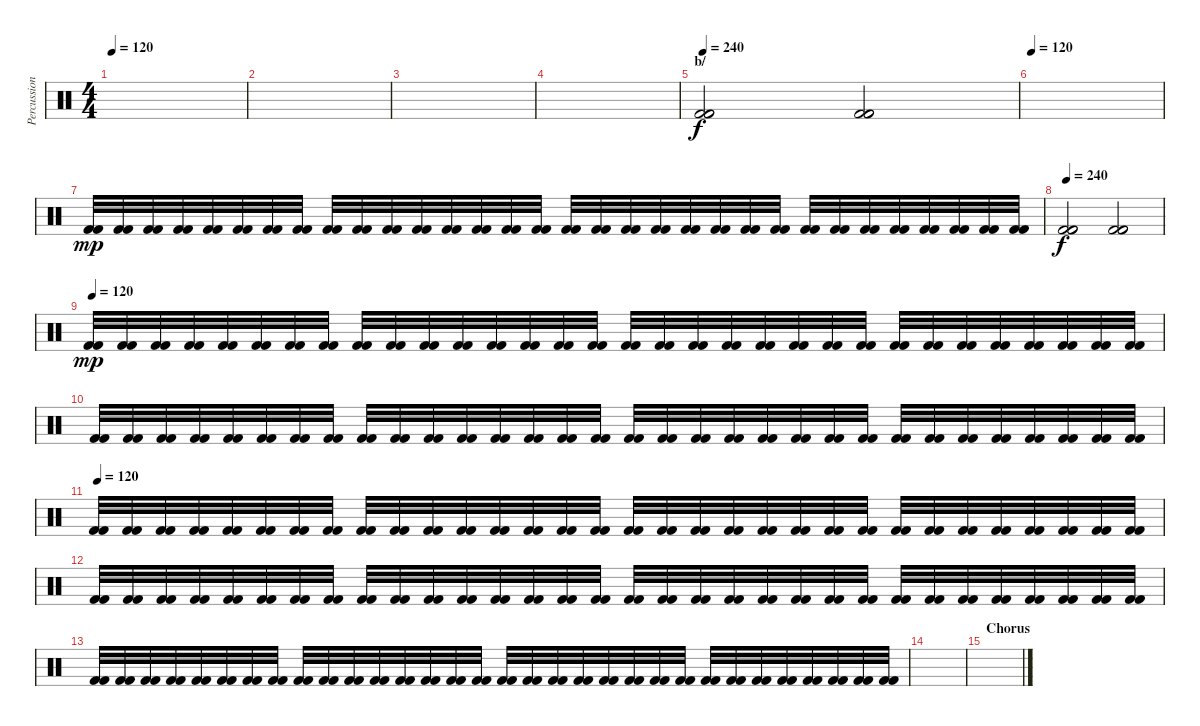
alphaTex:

\track ("Percussions" "Percussion") {instrument percussion}
\staff {score}
\articulation defaults
\ts (4 4)
\tempo 120
\clef neutral
\ks c
|
|
|
|
\section ("" "b/")
\tempo 240
("Kick (hit) 2" "Kick (hit) 2" "Kick (hit) 2").2{dy f} ("Kick (hit) 2" "Kick (hit) 2" "Kick (hit) 2").2 |
\tempo 120
|
("Kick (hit) 2" "Kick (hit) 2").32{dy mp} ("Kick (hit) 2" "Kick (hit) 2").32 ("Kick (hit) 2" "Kick (hit) 2").32 ("Kick (hit) 2" "Kick (hit) 2").32 ("Kick (hit) 2" "Kick (hit) 2").32 ("Kick (hit) 2" "Kick (hit) 2").32 ("Kick (hit) 2" "Kick (hit) 2").32 ("Kick (hit) 2" "Kick (hit) 2").32 ("Kick (hit) 2" "Kick (hit) 2").32 ("Kick (hit) 2" "Kick (hit) 2").32 ("Kick (hit) 2" "Kick (hit) 2").32 ("Kick (hit) 2" "Kick (hit) 2").32 ("Kick (hit) 2" "Kick (hit) 2").32 ("Kick (hit) 2" "Kick (hit) 2").32 ("Kick (hit) 2" "Kick (hit) 2").32 ("Kick (hit) 2" "Kick (hit) 2").32 ("Kick (hit) 2" "Kick (hit) 2").32 ("Kick (hit) 2" "Kick (hit) 2").32 ("Kick (hit) 2" "Kick (hit) 2").32 ("Kick (hit) 2" "Kick (hit) 2").32 ("Kick (hit) 2" "Kick (hit) 2").32 ("Kick (hit) 2" "Kick (hit) 2").32 ("Kick (hit) 2" "Kick (hit) 2").32 ("Kick (hit) 2" "Kick (hit) 2").32 ("Kick (hit) 2" "Kick (hit) 2").32 ("Kick (hit) 2" "Kick (hit) 2").32 ("Kick (hit) 2" "Kick (hit) 2").32 ("Kick (hit) 2" "Kick (hit) 2").32 ("Kick (hit) 2" "Kick (hit) 2").32 ("Kick (hit) 2" "Kick (hit) 2").32 ("Kick (hit) 2" "Kick (hit) 2").32 ("Kick (hit) 2" "Kick (hit) 2").32 |
\tempo 240
("Kick (hit) 2" "Kick (hit) 2" "Kick (hit) 2").2{dy f} ("Kick (hit) 2" "Kick (hit) 2" "Kick (hit) 2").2 |
\tempo 120
("Kick (hit) 2" "Kick (hit) 2").32{dy mp} ("Kick (hit) 2" "Kick (hit) 2").32 ("Kick (hit) 2" "Kick (hit) 2").32 ("Kick (hit) 2" "Kick (hit) 2").32 ("Kick (hit) 2" "Kick (hit) 2").32 ("Kick (hit) 2" "Kick (hit) 2").32 ("Kick (hit) 2" "Kick (hit) 2").32 ("Kick (hit) 2" "Kick (hit) 2").32 ("Kick (hit) 2" "Kick (hit) 2").32 ("Kick (hit) 2" "Kick (hit) 2").32 ("Kick (hit) 2" "Kick (hit) 2").32 ("Kick (hit) 2" "Kick (hit) 2").32 ("Kick (hit) 2" "Kick (hit) 2").32 ("Kick (hit) 2" "Kick (hit) 2").32 ("Kick (hit) 2" "Kick (hit) 2").32 ("Kick (hit) 2" "Kick (hit) 2").32 ("Kick (hit) 2" "Kick (hit) 2").32 ("Kick (hit) 2" "Kick (hit) 2").32 ("Kick (hit) 2" "Kick (hit) 2").32 ("Kick (hit) 2" "Kick (hit) 2").32 ("Kick (hit) 2" "Kick (hit) 2").32 ("Kick (hit) 2" "Kick (hit) 2").32 ("Kick (hit) 2" "Kick (hit) 2").32 ("Kick (hit) 2" "Kick (hit) 2").32 ("Kick (hit) 2" "Kick (hit) 2").32 ("Kick (hit) 2" "Kick (hit) 2").32 ("Kick (hit) 2" "Kick (hit) 2").32 ("Kick (hit) 2" "Kick (hit) 2").32 ("Kick (hit) 2" "Kick (hit) 2").32 ("Kick (hit) 2" "Kick (hit) 2").32 ("Kick (hit) 2" "Kick (hit) 2").32 ("Kick (hit) 2" "Kick (hit) 2").32 |
("Kick (hit) 2" "Kick (hit) 2").32 ("Kick (hit) 2" "Kick (hit) 2").32 ("Kick (hit) 2" "Kick (hit) 2").32 ("Kick (hit) 2" "Kick (hit) 2").32 ("Kick (hit) 2" "Kick (hit) 2").32 ("Kick (hit) 2" "Kick (hit) 2").32 ("Kick (hit) 2" "Kick (hit) 2").32 ("Kick (hit) 2" "Kick (hit) 2").32 ("Kick (hit) 2" "Kick (hit) 2").32 ("Kick (hit) 2" "Kick (hit) 2").32 ("Kick (hit) 2" "Kick (hit) 2").32 ("Kick (hit) 2" "Kick (hit) 2").32 ("Kick (hit) 2" "Kick (hit) 2").32 ("Kick (hit) 2" "Kick (hit) 2").32 ("Kick (hit) 2" "Kick (hit) 2").32 ("Kick (hit) 2" "Kick (hit) 2").32 ("Kick (hit) 2" "Kick (hit) 2").32 ("Kick (hit) 2" "Kick (hit) 2").32 ("Kick (hit) 2" "Kick (hit) 2").32 ("Kick (hit) 2" "Kick (hit) 2").32 ("Kick (hit) 2" "Kick (hit) 2").32 ("Kick (hit) 2" "Kick (hit) 2").32 ("Kick (hit) 2" "Kick (hit) 2").32 ("Kick (hit) 2" "Kick (hit) 2").32 ("Kick (hit) 2" "Kick (hit) 2").32 ("Kick (hit) 2" "Kick (hit) 2").32 ("Kick (hit) 2" "Kick (hit) 2").32 ("Kick (hit) 2" "Kick (hit) 2").32 ("Kick (hit) 2" "Kick (hit) 2").32 ("Kick (hit) 2" "Kick (hit) 2").32 ("Kick (hit) 2" "Kick (hit) 2").32 ("Kick (hit) 2" "Kick (hit) 2").32 |
\tempo 120
("Kick (hit) 2" "Kick (hit) 2").32 ("Kick (hit) 2" "Kick (hit) 2").32 ("Kick (hit) 2" "Kick (hit) 2").32 ("Kick (hit) 2" "Kick (hit) 2").32 ("Kick (hit) 2" "Kick (hit) 2").32 ("Kick (hit) 2" "Kick (hit) 2").32 ("Kick (hit) 2" "Kick (hit) 2").32 ("Kick (hit) 2" "Kick (hit) 2").32 ("Kick (hit) 2" "Kick (hit) 2").32 ("Kick (hit) 2" "Kick (hit) 2").32 ("Kick (hit) 2" "Kick (hit) 2").32 ("Kick (hit) 2" "Kick (hit) 2").32 ("Kick (hit) 2" "Kick (hit) 2").32 ("Kick (hit) 2" "Kick (hit) 2").32 ("Kick (hit) 2" "Kick (hit) 2").32 ("Kick (hit) 2" "Kick (hit) 2").32 ("Kick (hit) 2" "Kick (hit) 2").32 ("Kick (hit) 2" "Kick (hit) 2").32 ("Kick (hit) 2" "Kick (hit) 2").32 ("Kick (hit) 2" "Kick (hit) 2").32 ("Kick (hit) 2" "Kick (hit) 2").32 ("Kick (hit) 2" "Kick (hit) 2").32 ("Kick (hit) 2" "Kick (hit) 2").32 ("Kick (hit) 2" "Kick (hit) 2").32 ("Kick (hit) 2" "Kick (hit) 2").32 ("Kick (hit) 2" "Kick (hit) 2").32 ("Kick (hit) 2" "Kick (hit) 2").32 ("Kick (hit) 2" "Kick (hit) 2").32 ("Kick (hit) 2" "Kick (hit) 2").32 ("Kick (hit) 2" "Kick (hit) 2").32 ("Kick (hit) 2" "Kick (hit) 2").32 ("Kick (hit) 2" "Kick (hit) 2").32 |
("Kick (hit) 2" "Kick (hit) 2").32 ("Kick (hit) 2" "Kick (hit) 2").32 ("Kick (hit) 2" "Kick (hit) 2").32 ("Kick (hit) 2" "Kick (hit) 2").32 ("Kick (hit) 2" "Kick (hit) 2").32 ("Kick (hit) 2" "Kick (hit) 2").32 ("Kick (hit) 2" "Kick (hit) 2").32 ("Kick (hit) 2" "Kick (hit) 2").32 ("Kick (hit) 2" "Kick (hit) 2").32 ("Kick (hit) 2" "Kick (hit) 2").32 ("Kick (hit) 2" "Kick (hit) 2").32 ("Kick (hit) 2" "Kick (hit) 2").32 ("Kick (hit) 2" "Kick (hit) 2").32 ("Kick (hit) 2" "Kick (hit) 2").32 ("Kick (hit) 2" "Kick (hit) 2").32 ("Kick (hit) 2" "Kick (hit) 2").32 ("Kick (hit) 2" "Kick (hit) 2").32 ("Kick (hit) 2" "Kick (hit) 2").32 ("Kick (hit) 2" "Kick (hit) 2").32 ("Kick (hit) 2" "Kick (hit) 2").32 ("Kick (hit) 2" "Kick (hit) 2").32 ("Kick (hit) 2" "Kick (hit) 2").32 ("Kick (hit) 2" "Kick (hit) 2").32 ("Kick (hit) 2" "Kick (hit) 2").32 ("Kick (hit) 2" "Kick (hit) 2").32 ("Kick (hit) 2" "Kick (hit) 2").32 ("Kick (hit) 2" "Kick (hit) 2").32 ("Kick (hit) 2" "Kick (hit) 2").32 ("Kick (hit) 2" "Kick (hit) 2").32 ("Kick (hit) 2" "Kick (hit) 2").32 ("Kick (hit) 2" "Kick (hit) 2").32 ("Kick (hit) 2" "Kick (hit) 2").32 |
("Kick (hit) 2" "Kick (hit) 2").32 ("Kick (hit) 2" "Kick (hit) 2").32 ("Kick (hit) 2" "Kick (hit) 2").32 ("Kick (hit) 2" "Kick (hit) 2").32 ("Kick (hit) 2" "Kick (hit) 2").32 ("Kick (hit) 2" "Kick (hit) 2").32 ("Kick (hit) 2" "Kick (hit) 2").32 ("Kick (hit) 2" "Kick (hit) 2").32 ("Kick (hit) 2" "Kick (hit) 2").32 ("Kick (hit) 2" "Kick (hit) 2").32 ("Kick (hit) 2" "Kick (hit) 2").32 ("Kick (hit) 2" "Kick (hit) 2").32 ("Kick (hit) 2" "Kick (hit) 2").32 ("Kick (hit) 2" "Kick (hit) 2").32 ("Kick (hit) 2" "Kick (hit) 2").32 ("Kick (hit) 2" "Kick (hit) 2").32 ("Kick (hit) 2" "Kick (hit) 2").32 ("Kick (hit) 2" "Kick (hit) 2").32 ("Kick (hit) 2" "Kick (hit) 2").32 ("Kick (hit) 2" "Kick (hit) 2").32 ("Kick (hit) 2" "Kick (hit) 2").32 ("Kick (hit) 2" "Kick (hit) 2").32 ("Kick (hit) 2" "Kick (hit) 2").32 ("Kick (hit) 2" "Kick (hit) 2").32 ("Kick (hit) 2" "Kick (hit) 2").32 ("Kick (hit) 2" "Kick (hit) 2").32 ("Kick (hit) 2" "Kick (hit) 2").32 ("Kick (hit) 2" "Kick (hit) 2").32 ("Kick (hit) 2" "Kick (hit) 2").32 ("Kick (hit) 2" "Kick (hit) 2").32 ("Kick (hit) 2" "Kick (hit) 2").32 ("Kick (hit) 2" "Kick (hit) 2").32 |
|
\section ("" "Chorus")
